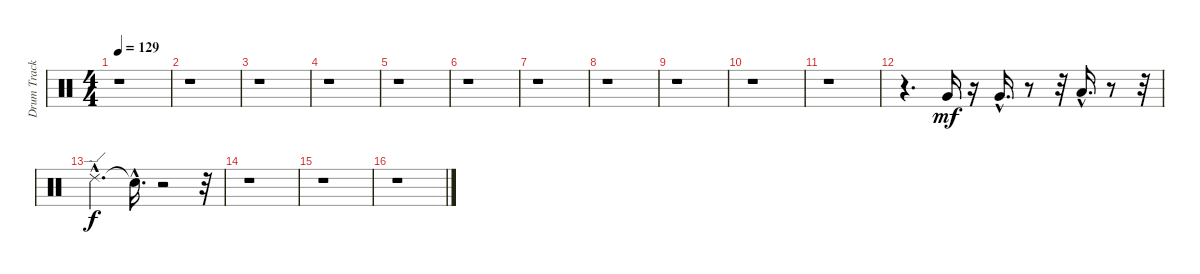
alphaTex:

\track ("Drum Track 2" "Drum Track") {instrument percussion}
\staff {score}
\articulation defaults
\ts (4 4)
\tempo 129
\clef neutral
\ks c
r.1{dy mf} |
r.1 |
r.1 |
r.1 |
r.1 |
r.1 |
r.1 |
r.1 |
r.1 |
r.1 |
r.1 |
r.4{d} "Very Low Tom (hit)".16 r.16 "Very Low Tom (hit)"{hac}.16{d} r.8 r.32 "Low Floor Tom (hit)"{hac}.16{d} r.8 r.32 |
"Ride (edge) 2"{hac}.4{d dy f} "Snare (hit)"{hac t}.16{d} r.2 r.32 |
r.1 |
r.1 |
r.1
